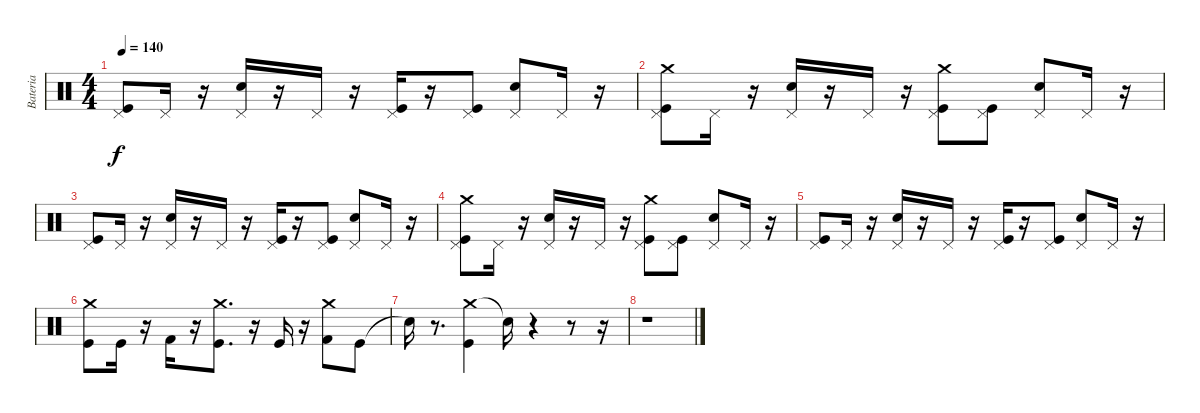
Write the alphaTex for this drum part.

\track ("Bateria" "Bateria") {instrument percussion}
\staff {score}
\articulation defaults
\ts (4 4)
\tempo 140
\clef neutral
\ks c
("Pedal Hi-Hat (hit)" "Kick (hit)").8{dy f} "Pedal Hi-Hat (hit)".16 r.16 ("Pedal Hi-Hat (hit)" "Snare (hit) 2").16 r.16 "Pedal Hi-Hat (hit)".16 r.16 ("Pedal Hi-Hat (hit)" "Kick (hit)").16 r.16 ("Pedal Hi-Hat (hit)" "Kick (hit)").8 ("Pedal Hi-Hat (hit)" "Snare (hit) 2").8 "Pedal Hi-Hat (hit)".16 r.16 |
("Crash medium (hit)" "Pedal Hi-Hat (hit)" "Kick (hit)").8 "Pedal Hi-Hat (hit)".16 r.16 ("Pedal Hi-Hat (hit)" "Snare (hit) 2").16 r.16 "Pedal Hi-Hat (hit)".16 r.16 ("Crash medium (hit)" "Pedal Hi-Hat (hit)" "Kick (hit)").8 ("Pedal Hi-Hat (hit)" "Kick (hit)").8 ("Pedal Hi-Hat (hit)" "Snare (hit) 2").8 "Pedal Hi-Hat (hit)".16 r.16 |
("Pedal Hi-Hat (hit)" "Kick (hit)").8 "Pedal Hi-Hat (hit)".16 r.16 ("Pedal Hi-Hat (hit)" "Snare (hit) 2").16 r.16 "Pedal Hi-Hat (hit)".16 r.16 ("Pedal Hi-Hat (hit)" "Kick (hit)").16 r.16 ("Pedal Hi-Hat (hit)" "Kick (hit)").8 ("Pedal Hi-Hat (hit)" "Snare (hit) 2").8 "Pedal Hi-Hat (hit)".16 r.16 |
("Crash medium (hit)" "Pedal Hi-Hat (hit)" "Kick (hit)").8 "Pedal Hi-Hat (hit)".16 r.16 ("Pedal Hi-Hat (hit)" "Snare (hit) 2").16 r.16 "Pedal Hi-Hat (hit)".16 r.16 ("Crash medium (hit)" "Pedal Hi-Hat (hit)" "Kick (hit)").8 ("Pedal Hi-Hat (hit)" "Kick (hit)").8 ("Pedal Hi-Hat (hit)" "Snare (hit) 2").8 "Pedal Hi-Hat (hit)".16 r.16 |
("Pedal Hi-Hat (hit)" "Kick (hit)").8 "Pedal Hi-Hat (hit)".16 r.16 ("Pedal Hi-Hat (hit)" "Snare (hit) 2").16 r.16 "Pedal Hi-Hat (hit)".16 r.16 ("Pedal Hi-Hat (hit)" "Kick (hit)").16 r.16 ("Pedal Hi-Hat (hit)" "Kick (hit)").8 ("Pedal Hi-Hat (hit)" "Snare (hit) 2").8 "Pedal Hi-Hat (hit)".16 r.16 |
("Crash medium (hit)" "Kick (hit)").8 "Kick (hit)".16 r.16 "Kick (hit) 2".16 r.16 ("Crash medium (hit)" "Kick (hit)").8{d} r.16 "Kick (hit)".16 r.16 ("Crash medium (hit)" "Kick (hit) 2").8 "Kick (hit)".8 |
"Snare (hit)"{t}.16 r.8{d} ("Crash medium (hit)" "Kick (hit)").4 "Snare (hit)"{t}.16 r.4 r.8 r.16 |
r.1
